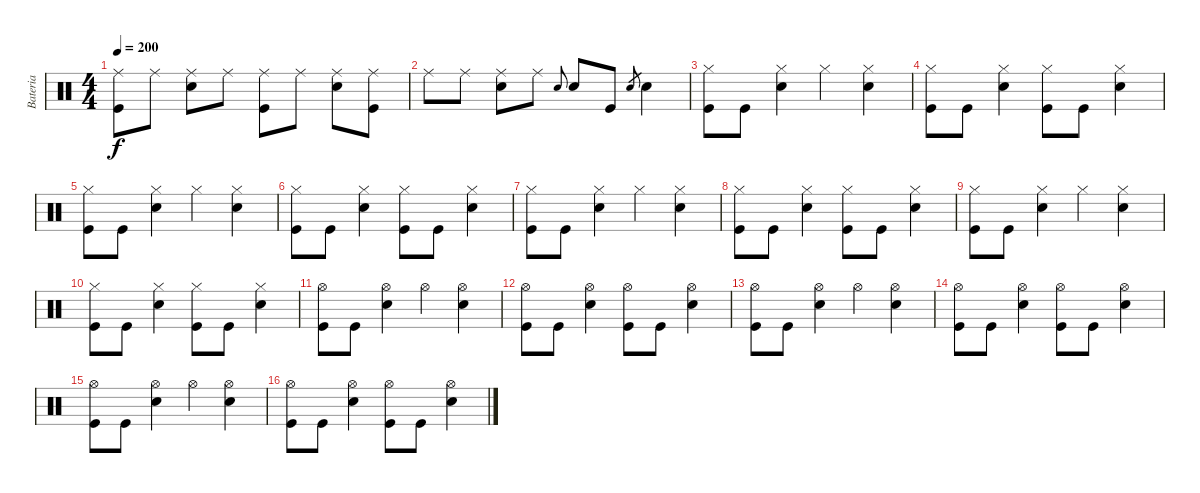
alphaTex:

\track ("Bateria" "Bateria") {instrument percussion}
\staff {score}
\articulation defaults
\ts (4 4)
\tempo 200
\clef neutral
\ks c
("Ride (middle)" "Kick (hit)").8{dy f} "Ride (middle)".8 ("Ride (middle)" "Snare (hit) 2").8 "Ride (middle)".8 ("Ride (middle)" "Kick (hit)").8 "Ride (middle)".8 ("Ride (middle)" "Snare (hit) 2").8 ("Ride (middle)" "Kick (hit)").8 |
"Ride (middle)".8 "Ride (middle)".8 ("Ride (middle)" "Snare (hit) 2").8 "Ride (middle)".8 "Snare (hit) 2".8{gr onbeat} "Snare (hit) 2".8 "Kick (hit)".8 "Snare (hit) 2".8{gr} "Snare (hit) 2".4 |
("Hi-Hat (closed)" "Kick (hit)").8 "Kick (hit)".8 ("Hi-Hat (closed)" "Snare (hit) 2").4 "Hi-Hat (closed)".4 ("Hi-Hat (closed)" "Snare (hit) 2").4 |
("Hi-Hat (closed)" "Kick (hit)").8 "Kick (hit)".8 ("Hi-Hat (closed)" "Snare (hit) 2").4 ("Hi-Hat (closed)" "Kick (hit)").8 "Kick (hit)".8 ("Hi-Hat (closed)" "Snare (hit) 2").4 |
("Hi-Hat (closed)" "Kick (hit)").8 "Kick (hit)".8 ("Hi-Hat (closed)" "Snare (hit) 2").4 "Hi-Hat (closed)".4 ("Hi-Hat (closed)" "Snare (hit) 2").4 |
("Hi-Hat (closed)" "Kick (hit)").8 "Kick (hit)".8 ("Hi-Hat (closed)" "Snare (hit) 2").4 ("Hi-Hat (closed)" "Kick (hit)").8 "Kick (hit)".8 ("Hi-Hat (closed)" "Snare (hit) 2").4 |
("Hi-Hat (closed)" "Kick (hit)").8 "Kick (hit)".8 ("Hi-Hat (closed)" "Snare (hit) 2").4 "Hi-Hat (closed)".4 ("Hi-Hat (closed)" "Snare (hit) 2").4 |
("Hi-Hat (closed)" "Kick (hit)").8 "Kick (hit)".8 ("Hi-Hat (closed)" "Snare (hit) 2").4 ("Hi-Hat (closed)" "Kick (hit)").8 "Kick (hit)".8 ("Hi-Hat (closed)" "Snare (hit) 2").4 |
("Hi-Hat (closed)" "Kick (hit)").8 "Kick (hit)".8 ("Hi-Hat (closed)" "Snare (hit) 2").4 "Hi-Hat (closed)".4 ("Hi-Hat (closed)" "Snare (hit) 2").4 |
("Hi-Hat (closed)" "Kick (hit)").8 "Kick (hit)".8 ("Hi-Hat (closed)" "Snare (hit) 2").4 ("Hi-Hat (closed)" "Kick (hit)").8 "Kick (hit)".8 ("Hi-Hat (closed)" "Snare (hit) 2").4 |
("Hi-Hat (open)" "Kick (hit)").8 "Kick (hit)".8 ("Hi-Hat (open)" "Snare (hit) 2").4 "Hi-Hat (open)".4 ("Hi-Hat (open)" "Snare (hit) 2").4 |
("Hi-Hat (open)" "Kick (hit)").8 "Kick (hit)".8 ("Hi-Hat (open)" "Snare (hit) 2").4 ("Hi-Hat (open)" "Kick (hit)").8 "Kick (hit)".8 ("Hi-Hat (open)" "Snare (hit) 2").4 |
("Hi-Hat (open)" "Kick (hit)").8 "Kick (hit)".8 ("Hi-Hat (open)" "Snare (hit) 2").4 "Hi-Hat (open)".4 ("Hi-Hat (open)" "Snare (hit) 2").4 |
("Hi-Hat (open)" "Kick (hit)").8 "Kick (hit)".8 ("Hi-Hat (open)" "Snare (hit) 2").4 ("Hi-Hat (open)" "Kick (hit)").8 "Kick (hit)".8 ("Hi-Hat (open)" "Snare (hit) 2").4 |
("Hi-Hat (open)" "Kick (hit)").8 "Kick (hit)".8 ("Hi-Hat (open)" "Snare (hit) 2").4 "Hi-Hat (open)".4 ("Hi-Hat (open)" "Snare (hit) 2").4 |
("Hi-Hat (open)" "Kick (hit)").8 "Kick (hit)".8 ("Hi-Hat (open)" "Snare (hit) 2").4 ("Hi-Hat (open)" "Kick (hit)").8 "Kick (hit)".8 ("Hi-Hat (open)" "Snare (hit) 2").4
